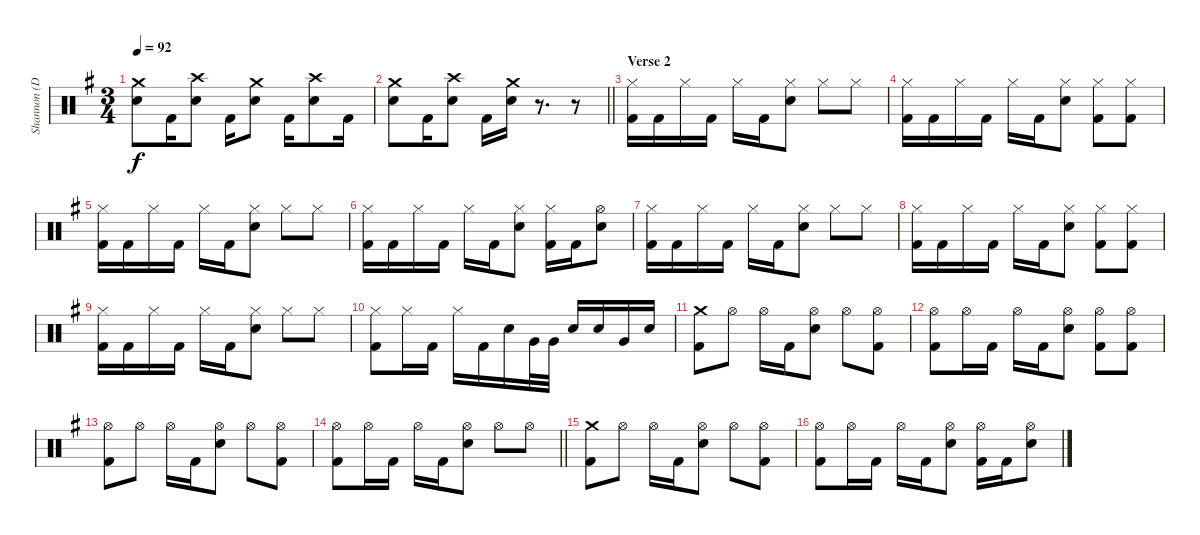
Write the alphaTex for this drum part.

\track ("Shannon (Drums)" "Shannon (D") {instrument percussion}
\staff {score}
\articulation defaults
\ts (3 4)
\tempo 92
\clef neutral
\ks g
("Crash medium (hit)" "Electric Snare (hit)").8{dy f} "Kick (hit) 2".16 ("Crash high (hit)" "Electric Snare (hit)").8 "Kick (hit) 2".16 ("Crash medium (hit)" "Electric Snare (hit)").8 "Kick (hit) 2".16 ("Crash high (hit)" "Electric Snare (hit)").8 "Kick (hit) 2".16 |
\barLineRight lightlight
("Crash medium (hit)" "Electric Snare (hit)").8 "Kick (hit) 2".16 ("Crash high (hit)" "Electric Snare (hit)").8 "Kick (hit) 2".16 ("Crash medium (hit)" "Electric Snare (hit)").16 r.8{d} r.8 |
\section ("" "Verse 2")
("Hi-Hat (closed)" "Kick (hit) 2").16 "Kick (hit) 2".16 "Hi-Hat (closed)".16 "Kick (hit) 2".16 "Hi-Hat (closed)".16 "Kick (hit) 2".16 ("Hi-Hat (closed)" "Electric Snare (hit)").8 "Hi-Hat (closed)".8 "Hi-Hat (closed)".8 |
("Hi-Hat (closed)" "Kick (hit) 2").16 "Kick (hit) 2".16 "Hi-Hat (closed)".16 "Kick (hit) 2".16 "Hi-Hat (closed)".16 "Kick (hit) 2".16 ("Hi-Hat (closed)" "Electric Snare (hit)").8 ("Hi-Hat (closed)" "Kick (hit) 2").8 ("Hi-Hat (closed)" "Kick (hit) 2").8 |
("Hi-Hat (closed)" "Kick (hit) 2").16 "Kick (hit) 2".16 "Hi-Hat (closed)".16 "Kick (hit) 2".16 "Hi-Hat (closed)".16 "Kick (hit) 2".16 ("Hi-Hat (closed)" "Electric Snare (hit)").8 "Hi-Hat (closed)".8 "Hi-Hat (closed)".8 |
("Hi-Hat (closed)" "Kick (hit) 2").16 "Kick (hit) 2".16 "Hi-Hat (closed)".16 "Kick (hit) 2".16 "Hi-Hat (closed)".16 "Kick (hit) 2".16 ("Hi-Hat (closed)" "Electric Snare (hit)").8 ("Hi-Hat (closed)" "Kick (hit) 2").16 "Kick (hit) 2".16 ("Hi-Hat (open)" "Electric Snare (hit)").8 |
("Hi-Hat (closed)" "Kick (hit) 2").16 "Kick (hit) 2".16 "Hi-Hat (closed)".16 "Kick (hit) 2".16 "Hi-Hat (closed)".16 "Kick (hit) 2".16 ("Hi-Hat (closed)" "Electric Snare (hit)").8 "Hi-Hat (closed)".8 "Hi-Hat (closed)".8 |
("Hi-Hat (closed)" "Kick (hit) 2").16 "Kick (hit) 2".16 "Hi-Hat (closed)".16 "Kick (hit) 2".16 "Hi-Hat (closed)".16 "Kick (hit) 2".16 ("Hi-Hat (closed)" "Electric Snare (hit)").8 ("Hi-Hat (closed)" "Kick (hit) 2").8 ("Hi-Hat (closed)" "Kick (hit) 2").8 |
("Hi-Hat (closed)" "Kick (hit) 2").16 "Kick (hit) 2".16 "Hi-Hat (closed)".16 "Kick (hit) 2".16 "Hi-Hat (closed)".16 "Kick (hit) 2".16 ("Hi-Hat (closed)" "Electric Snare (hit)").8 "Hi-Hat (closed)".8 "Hi-Hat (closed)".8 |
("Hi-Hat (closed)" "Kick (hit) 2").8 "Hi-Hat (closed)".16 "Kick (hit) 2".16 "Hi-Hat (closed)".16 "Kick (hit) 2".16 "Electric Snare (hit)".16 "Very Low Tom (hit)".32 "Very Low Tom (hit)".32 "Electric Snare (hit)".16 "Electric Snare (hit)".16 "Very Low Tom (hit)".16 "Electric Snare (hit)".16 |
("Crash medium (hit)" "Kick (hit) 2").8 "Hi-Hat (open)".8 "Hi-Hat (open)".16 "Kick (hit) 2".16 ("Hi-Hat (open)" "Electric Snare (hit)").8 "Hi-Hat (open)".8 ("Hi-Hat (open)" "Kick (hit) 2").8 |
("Hi-Hat (open)" "Kick (hit) 2").8 "Hi-Hat (open)".16 "Kick (hit) 2".16 "Hi-Hat (open)".16 "Kick (hit) 2".16 ("Hi-Hat (open)" "Electric Snare (hit)").8 ("Hi-Hat (open)" "Kick (hit) 2").8 ("Hi-Hat (open)" "Kick (hit) 2").8 |
("Hi-Hat (open)" "Kick (hit) 2").8 "Hi-Hat (open)".8 "Hi-Hat (open)".16 "Kick (hit) 2".16 ("Hi-Hat (open)" "Electric Snare (hit)").8 "Hi-Hat (open)".8 ("Hi-Hat (open)" "Kick (hit) 2").8 |
\barLineRight lightlight
("Hi-Hat (open)" "Kick (hit) 2").8 "Hi-Hat (open)".16 "Kick (hit) 2".16 "Hi-Hat (open)".16 "Kick (hit) 2".16 ("Hi-Hat (open)" "Electric Snare (hit)").8 "Hi-Hat (open)".8 "Hi-Hat (open)".8 |
("Crash medium (hit)" "Kick (hit) 2").8 "Hi-Hat (open)".8 "Hi-Hat (open)".16 "Kick (hit) 2".16 ("Hi-Hat (open)" "Electric Snare (hit)").8 "Hi-Hat (open)".8 ("Hi-Hat (open)" "Kick (hit) 2").8 |
("Hi-Hat (open)" "Kick (hit) 2").8 "Hi-Hat (open)".16 "Kick (hit) 2".16 "Hi-Hat (open)".16 "Kick (hit) 2".16 ("Hi-Hat (open)" "Electric Snare (hit)").8 ("Hi-Hat (open)" "Kick (hit) 2").16 "Kick (hit) 2".16 ("Hi-Hat (open)" "Electric Snare (hit)").8
